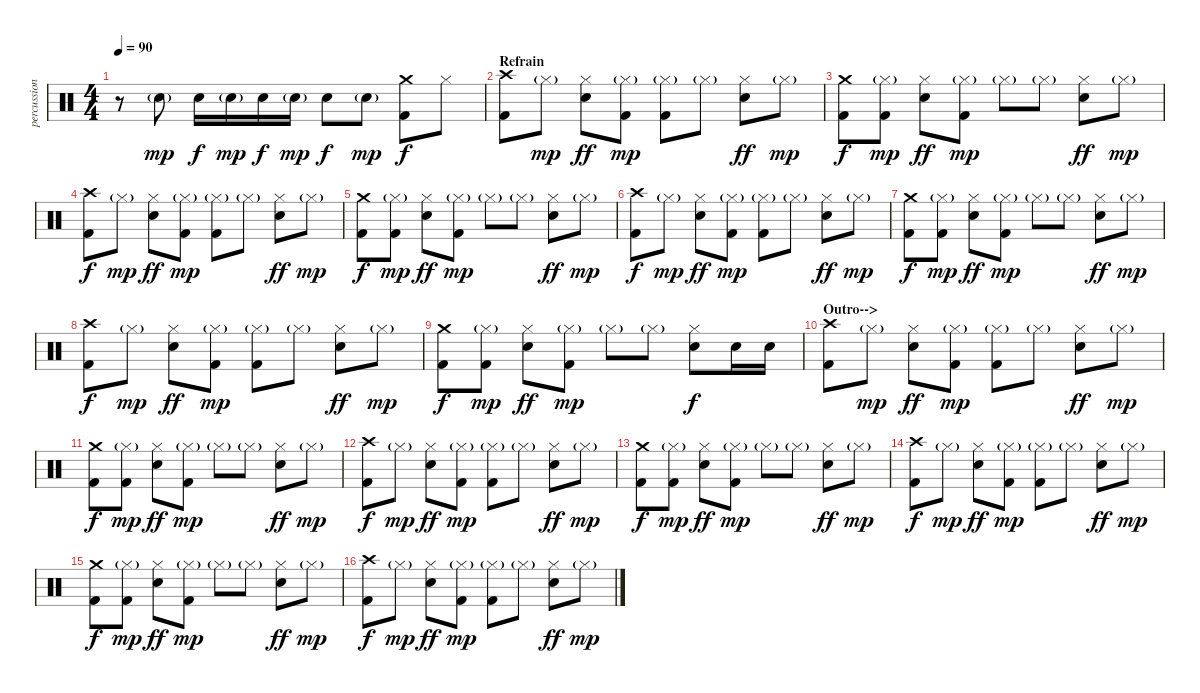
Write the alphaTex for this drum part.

\track ("percussion" "percussion") {instrument percussion}
\staff {score}
\articulation defaults
\ts (4 4)
\tempo 90
\clef neutral
\ks c
r.8{dy f} "Electric Snare (hit)"{g}.8{dy mp volume 12} "Electric Snare (hit)".16{dy f} "Electric Snare (hit)"{g}.16{dy mp} "Electric Snare (hit)".16{dy f} "Electric Snare (hit)"{g}.16{dy mp} "Electric Snare (hit)".8{dy f} "Electric Snare (hit)"{g}.8{dy mp} ("Crash medium (hit)" "Kick (hit) 2").8{dy f} "Hi-Hat (closed)".8 |
\section ("" "Refrain")
("Crash high (hit)" "Kick (hit) 2").8 "Hi-Hat (closed)"{g}.8{dy mp} ("Hi-Hat (closed)" "Electric Snare (hit)").8{dy ff} ("Hi-Hat (closed)"{g} "Kick (hit) 2").8{dy mp} ("Hi-Hat (closed)"{g} "Kick (hit) 2").8 "Hi-Hat (closed)"{g}.8 ("Hi-Hat (closed)" "Electric Snare (hit)").8{dy ff} "Hi-Hat (closed)"{g}.8{dy mp} |
("Crash medium (hit)" "Kick (hit) 2").8{dy f} ("Hi-Hat (closed)"{g} "Kick (hit) 2").8{dy mp} ("Hi-Hat (closed)" "Electric Snare (hit)").8{dy ff} ("Hi-Hat (closed)"{g} "Kick (hit) 2").8{dy mp} "Hi-Hat (closed)"{g}.8 "Hi-Hat (closed)"{g}.8 ("Hi-Hat (closed)" "Electric Snare (hit)").8{dy ff} "Hi-Hat (closed)"{g}.8{dy mp} |
("Crash high (hit)" "Kick (hit) 2").8{dy f} "Hi-Hat (closed)"{g}.8{dy mp} ("Hi-Hat (closed)" "Electric Snare (hit)").8{dy ff} ("Hi-Hat (closed)"{g} "Kick (hit) 2").8{dy mp} ("Hi-Hat (closed)"{g} "Kick (hit) 2").8 "Hi-Hat (closed)"{g}.8 ("Hi-Hat (closed)" "Electric Snare (hit)").8{dy ff} "Hi-Hat (closed)"{g}.8{dy mp} |
("Crash medium (hit)" "Kick (hit) 2").8{dy f} ("Hi-Hat (closed)"{g} "Kick (hit) 2").8{dy mp} ("Hi-Hat (closed)" "Electric Snare (hit)").8{dy ff} ("Hi-Hat (closed)"{g} "Kick (hit) 2").8{dy mp} "Hi-Hat (closed)"{g}.8 "Hi-Hat (closed)"{g}.8 ("Hi-Hat (closed)" "Electric Snare (hit)").8{dy ff} "Hi-Hat (closed)"{g}.8{dy mp} |
("Crash high (hit)" "Kick (hit) 2").8{dy f} "Hi-Hat (closed)"{g}.8{dy mp} ("Hi-Hat (closed)" "Electric Snare (hit)").8{dy ff} ("Hi-Hat (closed)"{g} "Kick (hit) 2").8{dy mp} ("Hi-Hat (closed)"{g} "Kick (hit) 2").8 "Hi-Hat (closed)"{g}.8 ("Hi-Hat (closed)" "Electric Snare (hit)").8{dy ff} "Hi-Hat (closed)"{g}.8{dy mp} |
("Crash medium (hit)" "Kick (hit) 2").8{dy f} ("Hi-Hat (closed)"{g} "Kick (hit) 2").8{dy mp} ("Hi-Hat (closed)" "Electric Snare (hit)").8{dy ff} ("Hi-Hat (closed)"{g} "Kick (hit) 2").8{dy mp} "Hi-Hat (closed)"{g}.8 "Hi-Hat (closed)"{g}.8 ("Hi-Hat (closed)" "Electric Snare (hit)").8{dy ff} "Hi-Hat (closed)"{g}.8{dy mp} |
("Crash high (hit)" "Kick (hit) 2").8{dy f} "Hi-Hat (closed)"{g}.8{dy mp} ("Hi-Hat (closed)" "Electric Snare (hit)").8{dy ff} ("Hi-Hat (closed)"{g} "Kick (hit) 2").8{dy mp} ("Hi-Hat (closed)"{g} "Kick (hit) 2").8 "Hi-Hat (closed)"{g}.8 ("Hi-Hat (closed)" "Electric Snare (hit)").8{dy ff} "Hi-Hat (closed)"{g}.8{dy mp} |
("Crash medium (hit)" "Kick (hit) 2").8{dy f} ("Hi-Hat (closed)"{g} "Kick (hit) 2").8{dy mp} ("Hi-Hat (closed)" "Electric Snare (hit)").8{dy ff} ("Hi-Hat (closed)"{g} "Kick (hit) 2").8{dy mp} "Hi-Hat (closed)"{g}.8 "Hi-Hat (closed)"{g}.8 ("Hi-Hat (closed)" "Electric Snare (hit)").8{dy f} "Electric Snare (hit)".16 "Electric Snare (hit)".16 |
\section ("" "Outro-->")
("Crash high (hit)" "Kick (hit) 2").8 "Hi-Hat (closed)"{g}.8{dy mp} ("Hi-Hat (closed)" "Electric Snare (hit)").8{dy ff} ("Hi-Hat (closed)"{g} "Kick (hit) 2").8{dy mp} ("Hi-Hat (closed)"{g} "Kick (hit) 2").8 "Hi-Hat (closed)"{g}.8 ("Hi-Hat (closed)" "Electric Snare (hit)").8{dy ff} "Hi-Hat (closed)"{g}.8{dy mp} |
("Crash medium (hit)" "Kick (hit) 2").8{dy f} ("Hi-Hat (closed)"{g} "Kick (hit) 2").8{dy mp} ("Hi-Hat (closed)" "Electric Snare (hit)").8{dy ff} ("Hi-Hat (closed)"{g} "Kick (hit) 2").8{dy mp} "Hi-Hat (closed)"{g}.8 "Hi-Hat (closed)"{g}.8 ("Hi-Hat (closed)" "Electric Snare (hit)").8{dy ff} "Hi-Hat (closed)"{g}.8{dy mp} |
("Crash high (hit)" "Kick (hit) 2").8{dy f} "Hi-Hat (closed)"{g}.8{dy mp} ("Hi-Hat (closed)" "Electric Snare (hit)").8{dy ff} ("Hi-Hat (closed)"{g} "Kick (hit) 2").8{dy mp} ("Hi-Hat (closed)"{g} "Kick (hit) 2").8 "Hi-Hat (closed)"{g}.8 ("Hi-Hat (closed)" "Electric Snare (hit)").8{dy ff} "Hi-Hat (closed)"{g}.8{dy mp} |
("Crash medium (hit)" "Kick (hit) 2").8{dy f} ("Hi-Hat (closed)"{g} "Kick (hit) 2").8{dy mp} ("Hi-Hat (closed)" "Electric Snare (hit)").8{dy ff} ("Hi-Hat (closed)"{g} "Kick (hit) 2").8{dy mp} "Hi-Hat (closed)"{g}.8 "Hi-Hat (closed)"{g}.8 ("Hi-Hat (closed)" "Electric Snare (hit)").8{dy ff} "Hi-Hat (closed)"{g}.8{dy mp} |
("Crash high (hit)" "Kick (hit) 2").8{dy f} "Hi-Hat (closed)"{g}.8{dy mp} ("Hi-Hat (closed)" "Electric Snare (hit)").8{dy ff} ("Hi-Hat (closed)"{g} "Kick (hit) 2").8{dy mp} ("Hi-Hat (closed)"{g} "Kick (hit) 2").8 "Hi-Hat (closed)"{g}.8 ("Hi-Hat (closed)" "Electric Snare (hit)").8{dy ff} "Hi-Hat (closed)"{g}.8{dy mp} |
("Crash medium (hit)" "Kick (hit) 2").8{dy f} ("Hi-Hat (closed)"{g} "Kick (hit) 2").8{dy mp} ("Hi-Hat (closed)" "Electric Snare (hit)").8{dy ff} ("Hi-Hat (closed)"{g} "Kick (hit) 2").8{dy mp} "Hi-Hat (closed)"{g}.8 "Hi-Hat (closed)"{g}.8 ("Hi-Hat (closed)" "Electric Snare (hit)").8{dy ff} "Hi-Hat (closed)"{g}.8{dy mp} |
("Crash high (hit)" "Kick (hit) 2").8{dy f} "Hi-Hat (closed)"{g}.8{dy mp} ("Hi-Hat (closed)" "Electric Snare (hit)").8{dy ff} ("Hi-Hat (closed)"{g} "Kick (hit) 2").8{dy mp} ("Hi-Hat (closed)"{g} "Kick (hit) 2").8 "Hi-Hat (closed)"{g}.8 ("Hi-Hat (closed)" "Electric Snare (hit)").8{dy ff} "Hi-Hat (closed)"{g}.8{dy mp}
